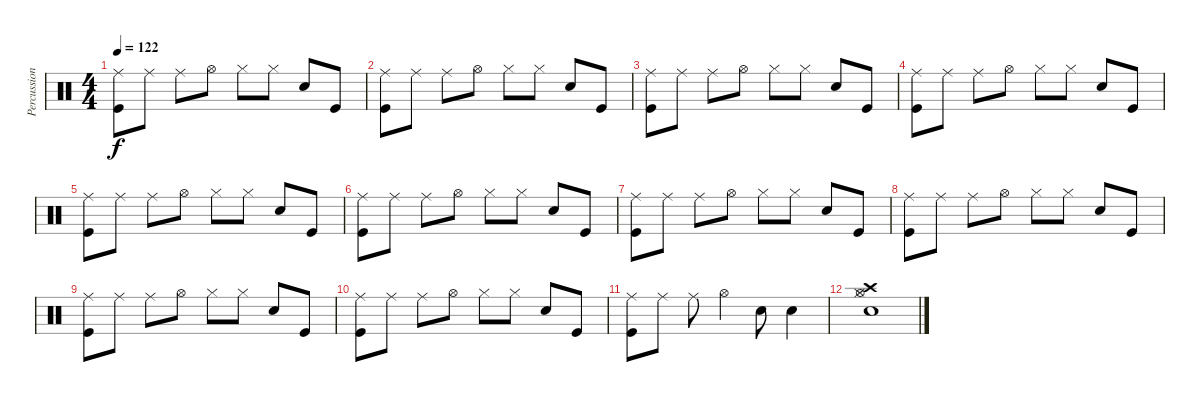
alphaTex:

\track ("Percussioni" "Percussion") {instrument percussion}
\staff {score}
\articulation defaults
\ts (4 4)
\tempo 122
\clef neutral
\ks c
("Ride (middle)" "Kick (hit)").8{dy f} "Ride (middle)".8 "Ride (middle)".8 "Hi-Hat (open)".8 "Hi-Hat (closed)".8 "Hi-Hat (closed)".8 "Snare (hit) 2".8 "Kick (hit)".8 |
("Ride (middle)" "Kick (hit)").8 "Ride (middle)".8 "Ride (middle)".8 "Hi-Hat (open)".8 "Hi-Hat (closed)".8 "Hi-Hat (closed)".8 "Snare (hit) 2".8 "Kick (hit)".8 |
("Ride (middle)" "Kick (hit)").8 "Ride (middle)".8 "Ride (middle)".8 "Hi-Hat (open)".8 "Hi-Hat (closed)".8 "Hi-Hat (closed)".8 "Snare (hit) 2".8 "Kick (hit)".8 |
("Ride (middle)" "Kick (hit)").8 "Ride (middle)".8 "Ride (middle)".8 "Hi-Hat (open)".8 "Hi-Hat (closed)".8 "Hi-Hat (closed)".8 "Snare (hit) 2".8 "Kick (hit)".8 |
("Ride (middle)" "Kick (hit)").8 "Ride (middle)".8 "Ride (middle)".8 "Hi-Hat (open)".8 "Hi-Hat (closed)".8 "Hi-Hat (closed)".8 "Snare (hit) 2".8 "Kick (hit)".8 |
("Ride (middle)" "Kick (hit)").8 "Ride (middle)".8 "Ride (middle)".8 "Hi-Hat (open)".8 "Hi-Hat (closed)".8 "Hi-Hat (closed)".8 "Snare (hit) 2".8 "Kick (hit)".8 |
("Ride (middle)" "Kick (hit)").8 "Ride (middle)".8 "Ride (middle)".8 "Hi-Hat (open)".8 "Hi-Hat (closed)".8 "Hi-Hat (closed)".8 "Snare (hit) 2".8 "Kick (hit)".8 |
("Ride (middle)" "Kick (hit)").8 "Ride (middle)".8 "Ride (middle)".8 "Hi-Hat (open)".8 "Hi-Hat (closed)".8 "Hi-Hat (closed)".8 "Snare (hit) 2".8 "Kick (hit)".8 |
("Ride (middle)" "Kick (hit)").8 "Ride (middle)".8 "Ride (middle)".8 "Hi-Hat (open)".8 "Hi-Hat (closed)".8 "Hi-Hat (closed)".8 "Snare (hit) 2".8 "Kick (hit)".8 |
("Ride (middle)" "Kick (hit)").8 "Ride (middle)".8 "Ride (middle)".8 "Hi-Hat (open)".8 "Hi-Hat (closed)".8 "Hi-Hat (closed)".8 "Snare (hit) 2".8 "Kick (hit)".8 |
("Ride (middle)" "Kick (hit)").8 "Ride (middle)".8 "Ride (middle)".8 "Hi-Hat (open)".4 "Snare (hit) 2".8 "Snare (hit) 2".4 |
("Hi-Hat (open)" "Hi-Hat (closed)" "Crash high (hit)" "Snare (hit) 2").1
